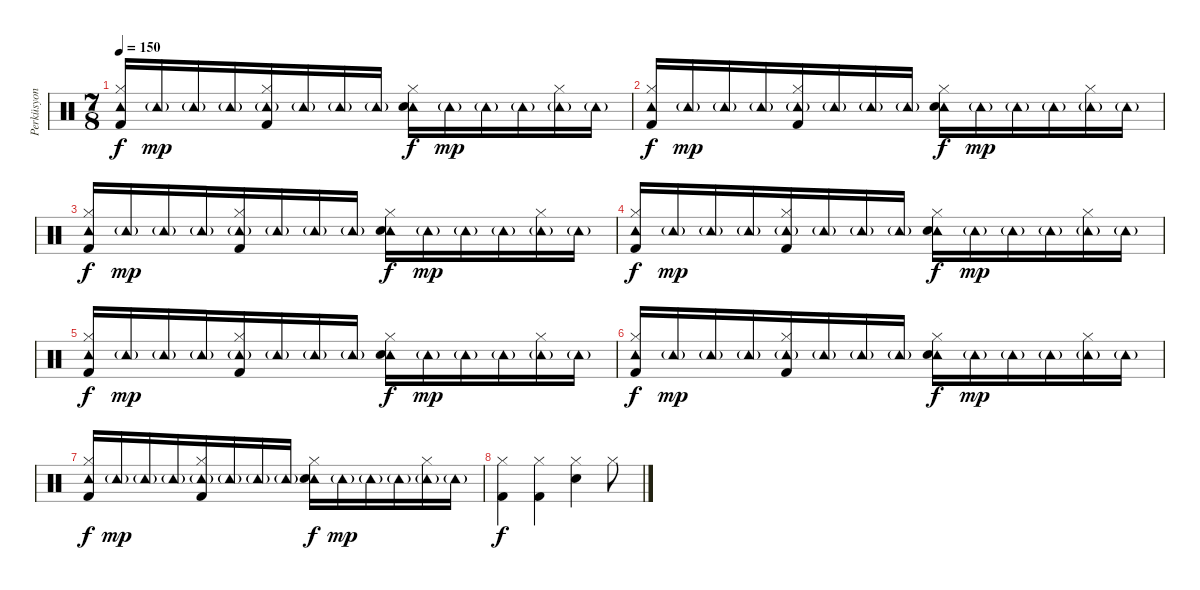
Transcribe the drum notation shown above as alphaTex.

\track ("Perküsyon" "Perküsyon") {instrument percussion}
\staff {score}
\articulation defaults
\ts (7 8)
\tempo 150
\clef neutral
\ks c
("Tambourine (hit)" "Hi-Hat (closed)" "Kick (hit) 2").16{dy f} "Tambourine (hit)"{g}.16{dy mp} "Tambourine (hit)"{g}.16 "Tambourine (hit)"{g}.16 ("Tambourine (hit)"{g} "Hi-Hat (closed)" "Kick (hit) 2").16 "Tambourine (hit)"{g}.16 "Tambourine (hit)"{g}.16 "Tambourine (hit)"{g}.16 ("Tambourine (hit)" "Hi-Hat (closed)" "Electric Snare (hit)").16{dy f} "Tambourine (hit)"{g}.16{dy mp} "Tambourine (hit)"{g}.16 "Tambourine (hit)"{g}.16 ("Tambourine (hit)"{g} "Hi-Hat (closed)").16 "Tambourine (hit)"{g}.16 |
("Tambourine (hit)" "Hi-Hat (closed)" "Kick (hit) 2").16{dy f} "Tambourine (hit)"{g}.16{dy mp} "Tambourine (hit)"{g}.16 "Tambourine (hit)"{g}.16 ("Tambourine (hit)"{g} "Hi-Hat (closed)" "Kick (hit) 2").16 "Tambourine (hit)"{g}.16 "Tambourine (hit)"{g}.16 "Tambourine (hit)"{g}.16 ("Tambourine (hit)" "Hi-Hat (closed)" "Electric Snare (hit)").16{dy f} "Tambourine (hit)"{g}.16{dy mp} "Tambourine (hit)"{g}.16 "Tambourine (hit)"{g}.16 ("Tambourine (hit)"{g} "Hi-Hat (closed)").16 "Tambourine (hit)"{g}.16 |
("Tambourine (hit)" "Hi-Hat (closed)" "Kick (hit) 2").16{dy f} "Tambourine (hit)"{g}.16{dy mp} "Tambourine (hit)"{g}.16 "Tambourine (hit)"{g}.16 ("Tambourine (hit)"{g} "Hi-Hat (closed)" "Kick (hit) 2").16 "Tambourine (hit)"{g}.16 "Tambourine (hit)"{g}.16 "Tambourine (hit)"{g}.16 ("Tambourine (hit)" "Hi-Hat (closed)" "Electric Snare (hit)").16{dy f} "Tambourine (hit)"{g}.16{dy mp} "Tambourine (hit)"{g}.16 "Tambourine (hit)"{g}.16 ("Tambourine (hit)"{g} "Hi-Hat (closed)").16 "Tambourine (hit)"{g}.16 |
("Tambourine (hit)" "Hi-Hat (closed)" "Kick (hit) 2").16{dy f} "Tambourine (hit)"{g}.16{dy mp} "Tambourine (hit)"{g}.16 "Tambourine (hit)"{g}.16 ("Tambourine (hit)"{g} "Hi-Hat (closed)" "Kick (hit) 2").16 "Tambourine (hit)"{g}.16 "Tambourine (hit)"{g}.16 "Tambourine (hit)"{g}.16 ("Tambourine (hit)" "Hi-Hat (closed)" "Electric Snare (hit)").16{dy f} "Tambourine (hit)"{g}.16{dy mp} "Tambourine (hit)"{g}.16 "Tambourine (hit)"{g}.16 ("Tambourine (hit)"{g} "Hi-Hat (closed)").16 "Tambourine (hit)"{g}.16 |
("Tambourine (hit)" "Hi-Hat (closed)" "Kick (hit) 2").16{dy f} "Tambourine (hit)"{g}.16{dy mp} "Tambourine (hit)"{g}.16 "Tambourine (hit)"{g}.16 ("Tambourine (hit)"{g} "Hi-Hat (closed)" "Kick (hit) 2").16 "Tambourine (hit)"{g}.16 "Tambourine (hit)"{g}.16 "Tambourine (hit)"{g}.16 ("Tambourine (hit)" "Hi-Hat (closed)" "Electric Snare (hit)").16{dy f} "Tambourine (hit)"{g}.16{dy mp} "Tambourine (hit)"{g}.16 "Tambourine (hit)"{g}.16 ("Tambourine (hit)"{g} "Hi-Hat (closed)").16 "Tambourine (hit)"{g}.16 |
("Tambourine (hit)" "Hi-Hat (closed)" "Kick (hit) 2").16{dy f} "Tambourine (hit)"{g}.16{dy mp} "Tambourine (hit)"{g}.16 "Tambourine (hit)"{g}.16 ("Tambourine (hit)"{g} "Hi-Hat (closed)" "Kick (hit) 2").16 "Tambourine (hit)"{g}.16 "Tambourine (hit)"{g}.16 "Tambourine (hit)"{g}.16 ("Tambourine (hit)" "Hi-Hat (closed)" "Electric Snare (hit)").16{dy f} "Tambourine (hit)"{g}.16{dy mp} "Tambourine (hit)"{g}.16 "Tambourine (hit)"{g}.16 ("Tambourine (hit)"{g} "Hi-Hat (closed)").16 "Tambourine (hit)"{g}.16 |
("Tambourine (hit)" "Hi-Hat (closed)" "Kick (hit) 2").16{dy f} "Tambourine (hit)"{g}.16{dy mp} "Tambourine (hit)"{g}.16 "Tambourine (hit)"{g}.16 ("Tambourine (hit)"{g} "Hi-Hat (closed)" "Kick (hit) 2").16 "Tambourine (hit)"{g}.16 "Tambourine (hit)"{g}.16 "Tambourine (hit)"{g}.16 ("Tambourine (hit)" "Hi-Hat (closed)" "Electric Snare (hit)").16{dy f} "Tambourine (hit)"{g}.16{dy mp} "Tambourine (hit)"{g}.16 "Tambourine (hit)"{g}.16 ("Tambourine (hit)"{g} "Hi-Hat (closed)").16 "Tambourine (hit)"{g}.16 |
("Hi-Hat (closed)" "Kick (hit) 2").4{dy f} ("Hi-Hat (closed)" "Kick (hit) 2").4 ("Hi-Hat (closed)" "Electric Snare (hit)").4 "Hi-Hat (closed)".8
